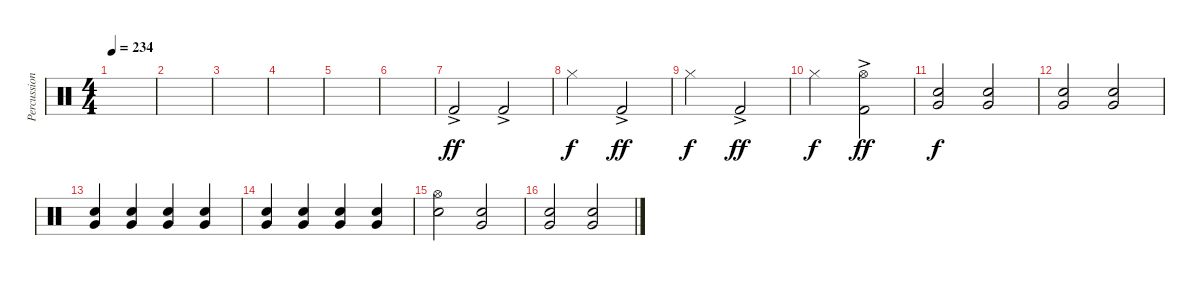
\track ("Percussions" "Percussion") {instrument percussion}
\staff {score}
\articulation defaults
\ts (4 4)
\tempo 234
\clef neutral
\ks c
|
|
|
|
|
|
"Kick (hit) 2"{ac}.2{dy ff} "Kick (hit) 2"{ac}.2 |
"Hi-Hat (closed)".2{dy f} "Kick (hit) 2"{ac}.2{dy ff} |
"Hi-Hat (closed)".2{dy f} "Kick (hit) 2"{ac}.2{dy ff} |
"Hi-Hat (closed)".2{dy f} ("Hi-Hat (open)" "Kick (hit) 2"{ac}).2{dy ff} |
("Snare (hit) 2" "Very Low Tom (hit)").2{dy f volume 8} ("Snare (hit) 2" "Very Low Tom (hit)").2 |
("Snare (hit) 2" "Very Low Tom (hit)").2 ("Snare (hit) 2" "Very Low Tom (hit)").2 |
("Snare (hit) 2" "Very Low Tom (hit)").4{volume 2} ("Snare (hit) 2" "Very Low Tom (hit)").4{volume 13} ("Snare (hit) 2" "Very Low Tom (hit)").4 ("Snare (hit) 2" "Very Low Tom (hit)").4 |
("Snare (hit) 2" "Very Low Tom (hit)").4 ("Snare (hit) 2" "Very Low Tom (hit)").4 ("Snare (hit) 2" "Very Low Tom (hit)").4 ("Snare (hit) 2" "Very Low Tom (hit)").4 |
("Hi-Hat (open)" "Snare (hit) 2").2 ("Snare (hit) 2" "Very Low Tom (hit)").2{volume 8} |
("Snare (hit) 2" "Very Low Tom (hit)").2 ("Snare (hit) 2" "Very Low Tom (hit)").2
